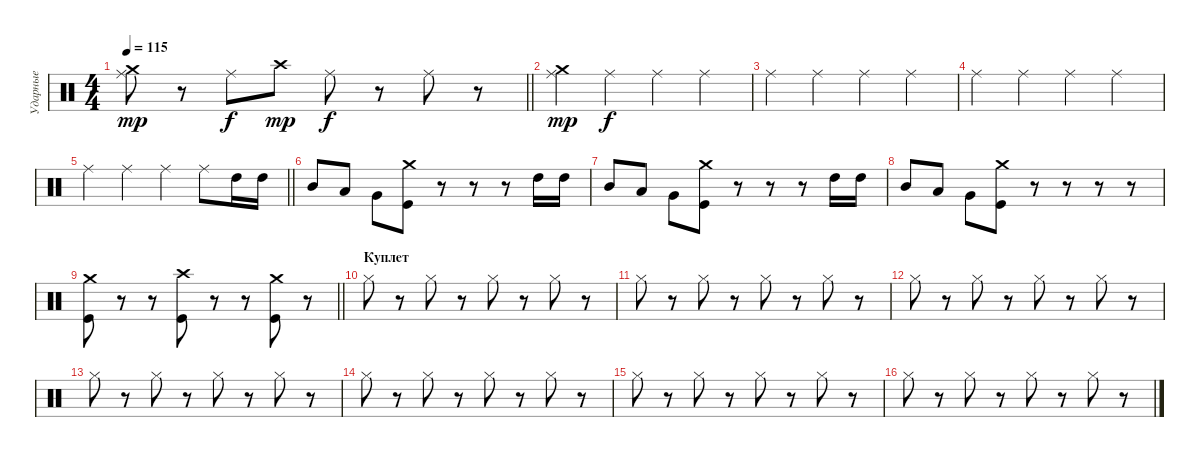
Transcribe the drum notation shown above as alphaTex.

\track ("Ударные" "Ударные") {instrument percussion}
\staff {score}
\articulation defaults
\ts (4 4)
\tempo 115
\clef neutral
\barLineRight lightlight
\ks c
("Ride (middle)" "Crash medium (hit)").8{dy mp} r.8 "Ride (middle)".8{dy f} "Crash high (hit)".8{dy mp} "Ride (middle)".8{dy f} r.8 "Ride (middle)".8 r.8 |
\section ("" " ")
("Ride (middle)" "Crash medium (hit)").4{dy mp} "Ride (middle)".4{dy f} "Ride (middle)".4 "Ride (middle)".4 |
"Ride (middle)".4 "Ride (middle)".4 "Ride (middle)".4 "Ride (middle)".4 |
"Ride (middle)".4 "Ride (middle)".4 "Ride (middle)".4 "Ride (middle)".4 |
\barLineRight lightlight "Ride (middle)".4 "Ride (middle)".4 "Ride (middle)".4 "Ride (middle)".8 "High Tom (hit)".16 "High Tom (hit)".16
|
\section ("" " ")
"Mid Tom (hit)".8 "Low Tom (hit)".8 "Very Low Tom (hit)".8 ("Crash medium (hit)" "Kick (hit)").8 r.8 r.8 r.8 "High Tom (hit)".16 "High Tom (hit)".16 |
"Mid Tom (hit)".8 "Low Tom (hit)".8 "Very Low Tom (hit)".8 ("Crash medium (hit)" "Kick (hit)").8 r.8 r.8 r.8 "High Tom (hit)".16 "High Tom (hit)".16 |
"Mid Tom (hit)".8 "Low Tom (hit)".8 "Very Low Tom (hit)".8 ("Crash medium (hit)" "Kick (hit)").8 r.8 r.8 r.8 r.8 |
\barLineRight lightlight
("Crash medium (hit)" "Kick (hit)").8 r.8 r.8 ("Crash high (hit)" "Kick (hit)").8 r.8 r.8 ("Crash medium (hit)" "Kick (hit)").8 r.8 |
\section ("" "Куплет")
"Hi-Hat (closed)".8 r.8 "Hi-Hat (closed)".8 r.8 "Hi-Hat (closed)".8 r.8 "Hi-Hat (closed)".8 r.8 |
"Hi-Hat (closed)".8 r.8 "Hi-Hat (closed)".8 r.8 "Hi-Hat (closed)".8 r.8 "Hi-Hat (closed)".8 r.8 |
"Hi-Hat (closed)".8 r.8 "Hi-Hat (closed)".8 r.8 "Hi-Hat (closed)".8 r.8 "Hi-Hat (closed)".8 r.8 |
"Hi-Hat (closed)".8 r.8 "Hi-Hat (closed)".8 r.8 "Hi-Hat (closed)".8 r.8 "Hi-Hat (closed)".8 r.8 |
"Hi-Hat (closed)".8 r.8 "Hi-Hat (closed)".8 r.8 "Hi-Hat (closed)".8 r.8 "Hi-Hat (closed)".8 r.8 |
"Hi-Hat (closed)".8 r.8 "Hi-Hat (closed)".8 r.8 "Hi-Hat (closed)".8 r.8 "Hi-Hat (closed)".8 r.8 |
"Hi-Hat (closed)".8 r.8 "Hi-Hat (closed)".8 r.8 "Hi-Hat (closed)".8 r.8 "Hi-Hat (closed)".8 r.8
